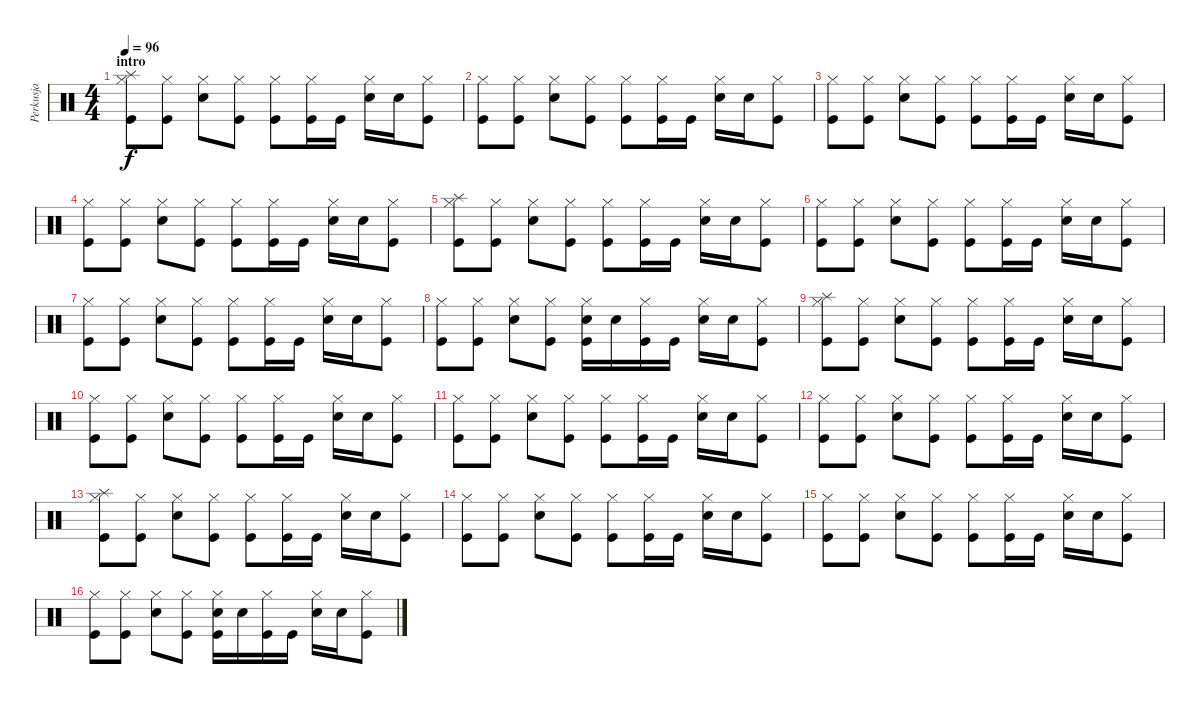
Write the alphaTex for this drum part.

\track ("Perkusja" "Perkusja") {instrument percussion}
\staff {score}
\articulation defaults
\ts (4 4)
\section ("" "intro")
\tempo 96
\clef neutral
\ks c
("Splash (hit)" "Hi-Hat (closed)" "Kick (hit)").8{dy f} ("Hi-Hat (closed)" "Kick (hit)").8 ("Electric Snare (hit)" "Hi-Hat (closed)").8 ("Hi-Hat (closed)" "Kick (hit)").8 ("Hi-Hat (closed)" "Kick (hit)").8 ("Hi-Hat (closed)" "Kick (hit)").16 "Kick (hit)".16 ("Electric Snare (hit)" "Hi-Hat (closed)").16 "Electric Snare (hit)".16 ("Hi-Hat (closed)" "Kick (hit)").8 |
("Hi-Hat (closed)" "Kick (hit)").8 ("Hi-Hat (closed)" "Kick (hit)").8 ("Electric Snare (hit)" "Hi-Hat (closed)").8 ("Hi-Hat (closed)" "Kick (hit)").8 ("Hi-Hat (closed)" "Kick (hit)").8 ("Hi-Hat (closed)" "Kick (hit)").16 "Kick (hit)".16 ("Electric Snare (hit)" "Hi-Hat (closed)").16 "Electric Snare (hit)".16 ("Hi-Hat (closed)" "Kick (hit)").8 |
("Hi-Hat (closed)" "Kick (hit)").8 ("Hi-Hat (closed)" "Kick (hit)").8 ("Electric Snare (hit)" "Hi-Hat (closed)").8 ("Hi-Hat (closed)" "Kick (hit)").8 ("Hi-Hat (closed)" "Kick (hit)").8 ("Hi-Hat (closed)" "Kick (hit)").16 "Kick (hit)".16 ("Electric Snare (hit)" "Hi-Hat (closed)").16 "Electric Snare (hit)".16 ("Hi-Hat (closed)" "Kick (hit)").8 |
("Hi-Hat (closed)" "Kick (hit)").8 ("Hi-Hat (closed)" "Kick (hit)").8 ("Electric Snare (hit)" "Hi-Hat (closed)").8 ("Hi-Hat (closed)" "Kick (hit)").8 ("Hi-Hat (closed)" "Kick (hit)").8 ("Hi-Hat (closed)" "Kick (hit)").16 "Kick (hit)".16 ("Electric Snare (hit)" "Hi-Hat (closed)").16 "Electric Snare (hit)".16 ("Hi-Hat (closed)" "Kick (hit)").8 |
("Splash (hit)" "Hi-Hat (closed)" "Kick (hit)").8 ("Hi-Hat (closed)" "Kick (hit)").8 ("Electric Snare (hit)" "Hi-Hat (closed)").8 ("Hi-Hat (closed)" "Kick (hit)").8 ("Hi-Hat (closed)" "Kick (hit)").8 ("Hi-Hat (closed)" "Kick (hit)").16 "Kick (hit)".16 ("Electric Snare (hit)" "Hi-Hat (closed)").16 "Electric Snare (hit)".16 ("Hi-Hat (closed)" "Kick (hit)").8 |
("Hi-Hat (closed)" "Kick (hit)").8 ("Hi-Hat (closed)" "Kick (hit)").8 ("Electric Snare (hit)" "Hi-Hat (closed)").8 ("Hi-Hat (closed)" "Kick (hit)").8 ("Hi-Hat (closed)" "Kick (hit)").8 ("Hi-Hat (closed)" "Kick (hit)").16 "Kick (hit)".16 ("Electric Snare (hit)" "Hi-Hat (closed)").16 "Electric Snare (hit)".16 ("Hi-Hat (closed)" "Kick (hit)").8 |
("Hi-Hat (closed)" "Kick (hit)").8 ("Hi-Hat (closed)" "Kick (hit)").8 ("Electric Snare (hit)" "Hi-Hat (closed)").8 ("Hi-Hat (closed)" "Kick (hit)").8 ("Hi-Hat (closed)" "Kick (hit)").8 ("Hi-Hat (closed)" "Kick (hit)").16 "Kick (hit)".16 ("Electric Snare (hit)" "Hi-Hat (closed)").16 "Electric Snare (hit)".16 ("Hi-Hat (closed)" "Kick (hit)").8 |
("Hi-Hat (closed)" "Kick (hit)").8 ("Hi-Hat (closed)" "Kick (hit)").8 ("Electric Snare (hit)" "Hi-Hat (closed)").8 ("Hi-Hat (closed)" "Kick (hit)").8 ("Electric Snare (hit)" "Hi-Hat (closed)" "Kick (hit)").16 "Electric Snare (hit)".16 ("Hi-Hat (closed)" "Kick (hit)").16 "Kick (hit)".16 ("Electric Snare (hit)" "Hi-Hat (closed)").16 "Electric Snare (hit)".16 ("Hi-Hat (closed)" "Kick (hit)").8 |
("Splash (hit)" "Hi-Hat (closed)" "Kick (hit)").8 ("Hi-Hat (closed)" "Kick (hit)").8 ("Electric Snare (hit)" "Hi-Hat (closed)").8 ("Hi-Hat (closed)" "Kick (hit)").8 ("Hi-Hat (closed)" "Kick (hit)").8 ("Hi-Hat (closed)" "Kick (hit)").16 "Kick (hit)".16 ("Electric Snare (hit)" "Hi-Hat (closed)").16 "Electric Snare (hit)".16 ("Hi-Hat (closed)" "Kick (hit)").8 |
("Hi-Hat (closed)" "Kick (hit)").8 ("Hi-Hat (closed)" "Kick (hit)").8 ("Electric Snare (hit)" "Hi-Hat (closed)").8 ("Hi-Hat (closed)" "Kick (hit)").8 ("Hi-Hat (closed)" "Kick (hit)").8 ("Hi-Hat (closed)" "Kick (hit)").16 "Kick (hit)".16 ("Electric Snare (hit)" "Hi-Hat (closed)").16 "Electric Snare (hit)".16 ("Hi-Hat (closed)" "Kick (hit)").8 |
("Hi-Hat (closed)" "Kick (hit)").8 ("Hi-Hat (closed)" "Kick (hit)").8 ("Electric Snare (hit)" "Hi-Hat (closed)").8 ("Hi-Hat (closed)" "Kick (hit)").8 ("Hi-Hat (closed)" "Kick (hit)").8 ("Hi-Hat (closed)" "Kick (hit)").16 "Kick (hit)".16 ("Electric Snare (hit)" "Hi-Hat (closed)").16 "Electric Snare (hit)".16 ("Hi-Hat (closed)" "Kick (hit)").8 |
("Hi-Hat (closed)" "Kick (hit)").8 ("Hi-Hat (closed)" "Kick (hit)").8 ("Electric Snare (hit)" "Hi-Hat (closed)").8 ("Hi-Hat (closed)" "Kick (hit)").8 ("Hi-Hat (closed)" "Kick (hit)").8 ("Hi-Hat (closed)" "Kick (hit)").16 "Kick (hit)".16 ("Electric Snare (hit)" "Hi-Hat (closed)").16 "Electric Snare (hit)".16 ("Hi-Hat (closed)" "Kick (hit)").8 |
("Splash (hit)" "Hi-Hat (closed)" "Kick (hit)").8 ("Hi-Hat (closed)" "Kick (hit)").8 ("Electric Snare (hit)" "Hi-Hat (closed)").8 ("Hi-Hat (closed)" "Kick (hit)").8 ("Hi-Hat (closed)" "Kick (hit)").8 ("Hi-Hat (closed)" "Kick (hit)").16 "Kick (hit)".16 ("Electric Snare (hit)" "Hi-Hat (closed)").16 "Electric Snare (hit)".16 ("Hi-Hat (closed)" "Kick (hit)").8 |
("Hi-Hat (closed)" "Kick (hit)").8 ("Hi-Hat (closed)" "Kick (hit)").8 ("Electric Snare (hit)" "Hi-Hat (closed)").8 ("Hi-Hat (closed)" "Kick (hit)").8 ("Hi-Hat (closed)" "Kick (hit)").8 ("Hi-Hat (closed)" "Kick (hit)").16 "Kick (hit)".16 ("Electric Snare (hit)" "Hi-Hat (closed)").16 "Electric Snare (hit)".16 ("Hi-Hat (closed)" "Kick (hit)").8 |
("Hi-Hat (closed)" "Kick (hit)").8 ("Hi-Hat (closed)" "Kick (hit)").8 ("Electric Snare (hit)" "Hi-Hat (closed)").8 ("Hi-Hat (closed)" "Kick (hit)").8 ("Hi-Hat (closed)" "Kick (hit)").8 ("Hi-Hat (closed)" "Kick (hit)").16 "Kick (hit)".16 ("Electric Snare (hit)" "Hi-Hat (closed)").16 "Electric Snare (hit)".16 ("Hi-Hat (closed)" "Kick (hit)").8 |
("Hi-Hat (closed)" "Kick (hit)").8 ("Hi-Hat (closed)" "Kick (hit)").8 ("Electric Snare (hit)" "Hi-Hat (closed)").8 ("Hi-Hat (closed)" "Kick (hit)").8 ("Electric Snare (hit)" "Hi-Hat (closed)" "Kick (hit)").16 "Electric Snare (hit)".16 ("Hi-Hat (closed)" "Kick (hit)").16 "Kick (hit)".16 ("Electric Snare (hit)" "Hi-Hat (closed)").16 "Electric Snare (hit)".16 ("Hi-Hat (closed)" "Kick (hit)").8
